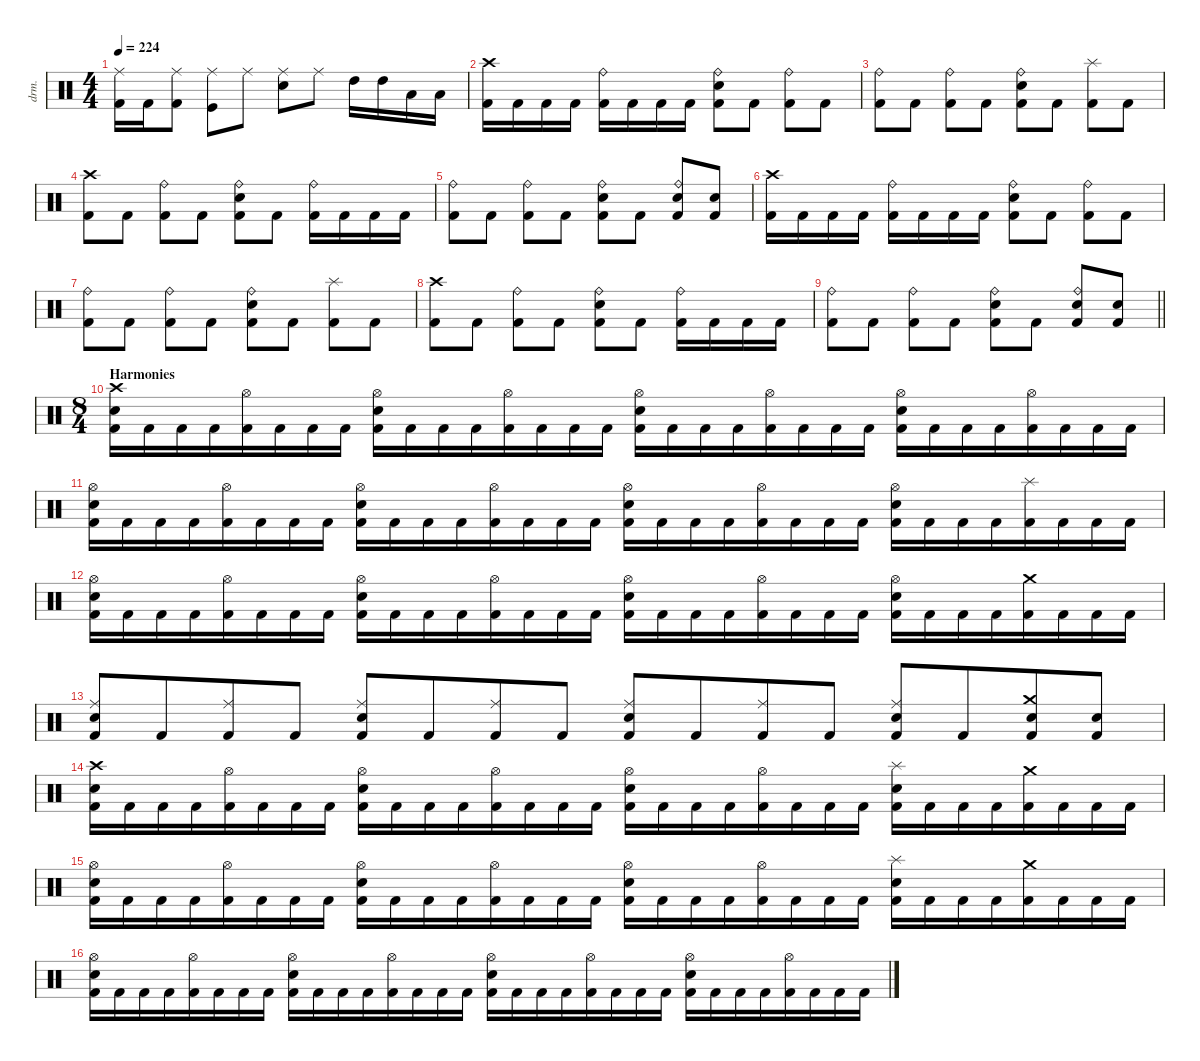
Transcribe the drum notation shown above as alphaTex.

\defaultSystemsLayout 4
\hideDynamics
\bracketExtendMode nobrackets
\otherSystemsTrackNameOrientation horizontal
\track ("Percussion" "drm.") {instrument percussion}
\staff {score}
\articulation defaults
\ts (4 4)
\tempo 224
\clef neutral
\ks c
("Ride (middle)" "Kick (hit) 2").16{dy f beam Down} "Kick (hit) 2".16{beam Down} ("Ride (middle)" "Kick (hit) 2").8{beam Down} ("Ride (middle)" "Kick (hit)").8{beam Down} "Ride (middle)".8{beam Down} ("Ride (middle)" "Snare (hit) 2").8{beam Down} "Ride (middle)".8{beam Down} "High Tom (hit)".16{beam Down} "High Tom (hit)".16{beam Down} "Low Tom (hit)".16{beam Down} "Low Tom (hit)".16{beam Down} |
("Crash high (hit)" "Kick (hit) 2").16{beam Down} "Kick (hit) 2".16{beam Down} "Kick (hit) 2".16{beam Down} "Kick (hit) 2".16{beam Down} ("Ride (bell)" "Kick (hit) 2").16{beam Down} "Kick (hit) 2".16{beam Down} "Kick (hit) 2".16{beam Down} "Kick (hit) 2".16{beam Down} ("Ride (bell)" "Snare (hit) 2" "Kick (hit) 2").8{beam Down} "Kick (hit) 2".8{beam Down} ("Ride (bell)" "Kick (hit) 2").8{beam Down} "Kick (hit) 2".8{beam Down} |
("Ride (bell)" "Kick (hit) 2").8{beam Down} "Kick (hit) 2".8{beam Down} ("Ride (bell)" "Kick (hit) 2").8{beam Down} "Kick (hit) 2".8{beam Down} ("Ride (bell)" "Snare (hit) 2" "Kick (hit) 2").8{beam Down} "Kick (hit) 2".8{beam Down} ("Splash (hit)" "Kick (hit) 2").8{beam Down} "Kick (hit) 2".8{beam Down} |
("Crash high (hit)" "Kick (hit) 2").8{beam Down} "Kick (hit) 2".8{beam Down} ("Ride (bell)" "Kick (hit) 2").8{beam Down} "Kick (hit) 2".8{beam Down} ("Ride (bell)" "Snare (hit) 2" "Kick (hit) 2").8{beam Down} "Kick (hit) 2".8{beam Down} ("Ride (bell)" "Kick (hit) 2").16{beam Down} "Kick (hit) 2".16{beam Down} "Kick (hit) 2".16{beam Down} "Kick (hit) 2".16{beam Down} |
("Ride (bell)" "Kick (hit) 2").8{beam Down} "Kick (hit) 2".8{beam Down} ("Ride (bell)" "Kick (hit) 2").8{beam Down} "Kick (hit) 2".8{beam Down} ("Ride (bell)" "Snare (hit) 2" "Kick (hit) 2").8{beam Down} "Kick (hit) 2".8{beam Down} ("Ride (bell)" "Snare (hit) 2" "Kick (hit) 2").8{beam Up} ("Snare (hit) 2" "Kick (hit) 2").8{beam Up} |
("Crash high (hit)" "Kick (hit) 2").16{beam Down} "Kick (hit) 2".16{beam Down} "Kick (hit) 2".16{beam Down} "Kick (hit) 2".16{beam Down} ("Ride (bell)" "Kick (hit) 2").16{beam Down} "Kick (hit) 2".16{beam Down} "Kick (hit) 2".16{beam Down} "Kick (hit) 2".16{beam Down} ("Ride (bell)" "Snare (hit) 2" "Kick (hit) 2").8{beam Down} "Kick (hit) 2".8{beam Down} ("Ride (bell)" "Kick (hit) 2").8{beam Down} "Kick (hit) 2".8{beam Down} |
("Ride (bell)" "Kick (hit) 2").8{beam Down} "Kick (hit) 2".8{beam Down} ("Ride (bell)" "Kick (hit) 2").8{beam Down} "Kick (hit) 2".8{beam Down} ("Ride (bell)" "Snare (hit) 2" "Kick (hit) 2").8{beam Down} "Kick (hit) 2".8{beam Down} ("Splash (hit)" "Kick (hit) 2").8{beam Down} "Kick (hit) 2".8{beam Down} |
("Crash high (hit)" "Kick (hit) 2").8{beam Down} "Kick (hit) 2".8{beam Down} ("Ride (bell)" "Kick (hit) 2").8{beam Down} "Kick (hit) 2".8{beam Down} ("Ride (bell)" "Snare (hit) 2" "Kick (hit) 2").8{beam Down} "Kick (hit) 2".8{beam Down} ("Ride (bell)" "Kick (hit) 2").16{beam Down} "Kick (hit) 2".16{beam Down} "Kick (hit) 2".16{beam Down} "Kick (hit) 2".16{beam Down} |
\barLineRight lightlight
("Ride (bell)" "Kick (hit) 2").8{beam Down} "Kick (hit) 2".8{beam Down} ("Ride (bell)" "Kick (hit) 2").8{beam Down} "Kick (hit) 2".8{beam Down} ("Ride (bell)" "Snare (hit) 2" "Kick (hit) 2").8{beam Down} "Kick (hit) 2".8{beam Down} ("Ride (bell)" "Snare (hit) 2" "Kick (hit) 2").8{beam Up} ("Snare (hit) 2" "Kick (hit) 2").8{beam Up} |
\ts (8 4)
\beaming (8 4 4 4 4)
\section ("" "Harmonies")
("Crash high (hit)" "Snare (hit) 2" "Kick (hit) 2").16{beam Down} "Kick (hit) 2".16{beam Down} "Kick (hit) 2".16{beam Down} "Kick (hit) 2".16{beam Down} ("Hi-Hat (open)" "Kick (hit) 2").16{beam Down} "Kick (hit) 2".16{beam Down} "Kick (hit) 2".16{beam Down} "Kick (hit) 2".16{beam Down} ("Hi-Hat (open)" "Snare (hit) 2" "Kick (hit) 2").16{beam Down} "Kick (hit) 2".16{beam Down} "Kick (hit) 2".16{beam Down} "Kick (hit) 2".16{beam Down} ("Hi-Hat (open)" "Kick (hit) 2").16{beam Down} "Kick (hit) 2".16{beam Down} "Kick (hit) 2".16{beam Down} "Kick (hit) 2".16{beam Down} ("Hi-Hat (open)" "Snare (hit) 2" "Kick (hit) 2").16{beam Down} "Kick (hit) 2".16{beam Down} "Kick (hit) 2".16{beam Down} "Kick (hit) 2".16{beam Down} ("Hi-Hat (open)" "Kick (hit) 2").16{beam Down} "Kick (hit) 2".16{beam Down} "Kick (hit) 2".16{beam Down} "Kick (hit) 2".16{beam Down} ("Hi-Hat (open)" "Snare (hit) 2" "Kick (hit) 2").16{beam Down} "Kick (hit) 2".16{beam Down} "Kick (hit) 2".16{beam Down} "Kick (hit) 2".16{beam Down} ("Hi-Hat (open)" "Kick (hit) 2").16{beam Down} "Kick (hit) 2".16{beam Down} "Kick (hit) 2".16{beam Down} "Kick (hit) 2".16{beam Down} |
("Hi-Hat (open)" "Snare (hit) 2" "Kick (hit) 2").16{beam Down} "Kick (hit) 2".16{beam Down} "Kick (hit) 2".16{beam Down} "Kick (hit) 2".16{beam Down} ("Hi-Hat (open)" "Kick (hit) 2").16{beam Down} "Kick (hit) 2".16{beam Down} "Kick (hit) 2".16{beam Down} "Kick (hit) 2".16{beam Down} ("Hi-Hat (open)" "Snare (hit) 2" "Kick (hit) 2").16{beam Down} "Kick (hit) 2".16{beam Down} "Kick (hit) 2".16{beam Down} "Kick (hit) 2".16{beam Down} ("Hi-Hat (open)" "Kick (hit) 2").16{beam Down} "Kick (hit) 2".16{beam Down} "Kick (hit) 2".16{beam Down} "Kick (hit) 2".16{beam Down} ("Hi-Hat (open)" "Snare (hit) 2" "Kick (hit) 2").16{beam Down} "Kick (hit) 2".16{beam Down} "Kick (hit) 2".16{beam Down} "Kick (hit) 2".16{beam Down} ("Hi-Hat (open)" "Kick (hit) 2").16{beam Down} "Kick (hit) 2".16{beam Down} "Kick (hit) 2".16{beam Down} "Kick (hit) 2".16{beam Down} ("Hi-Hat (open)" "Snare (hit) 2" "Kick (hit) 2").16{beam Down} "Kick (hit) 2".16{beam Down} "Kick (hit) 2".16{beam Down} "Kick (hit) 2".16{beam Down} ("Splash (hit)" "Kick (hit) 2").16{beam Down} "Kick (hit) 2".16{beam Down} "Kick (hit) 2".16{beam Down} "Kick (hit) 2".16{beam Down} |
("Hi-Hat (open)" "Snare (hit) 2" "Kick (hit) 2").16{beam Down} "Kick (hit) 2".16{beam Down} "Kick (hit) 2".16{beam Down} "Kick (hit) 2".16{beam Down} ("Hi-Hat (open)" "Kick (hit) 2").16{beam Down} "Kick (hit) 2".16{beam Down} "Kick (hit) 2".16{beam Down} "Kick (hit) 2".16{beam Down} ("Hi-Hat (open)" "Snare (hit) 2" "Kick (hit) 2").16{beam Down} "Kick (hit) 2".16{beam Down} "Kick (hit) 2".16{beam Down} "Kick (hit) 2".16{beam Down} ("Hi-Hat (open)" "Kick (hit) 2").16{beam Down} "Kick (hit) 2".16{beam Down} "Kick (hit) 2".16{beam Down} "Kick (hit) 2".16{beam Down} ("Hi-Hat (open)" "Snare (hit) 2" "Kick (hit) 2").16{beam Down} "Kick (hit) 2".16{beam Down} "Kick (hit) 2".16{beam Down} "Kick (hit) 2".16{beam Down} ("Hi-Hat (open)" "Kick (hit) 2").16{beam Down} "Kick (hit) 2".16{beam Down} "Kick (hit) 2".16{beam Down} "Kick (hit) 2".16{beam Down} ("Hi-Hat (open)" "Snare (hit) 2" "Kick (hit) 2").16{beam Down} "Kick (hit) 2".16{beam Down} "Kick (hit) 2".16{beam Down} "Kick (hit) 2".16{beam Down} ("Crash medium (hit)" "Kick (hit) 2").16{beam Down} "Kick (hit) 2".16{beam Down} "Kick (hit) 2".16{beam Down} "Kick (hit) 2".16{beam Down} |
("Ride (middle)" "Snare (hit) 2" "Kick (hit) 2").8{beam Up} "Kick (hit) 2".8{beam Up} ("Ride (middle)" "Kick (hit) 2").8{beam Up} "Kick (hit) 2".8{beam Up} ("Ride (middle)" "Snare (hit) 2" "Kick (hit) 2").8{beam Up} "Kick (hit) 2".8{beam Up} ("Ride (middle)" "Kick (hit) 2").8{beam Up} "Kick (hit) 2".8{beam Up} ("Ride (middle)" "Snare (hit) 2" "Kick (hit) 2").8{beam Up} "Kick (hit) 2".8{beam Up} ("Ride (middle)" "Kick (hit) 2").8{beam Up} "Kick (hit) 2".8{beam Up} ("Ride (middle)" "Snare (hit) 2" "Kick (hit) 2").8{beam Up} "Kick (hit) 2".8{beam Up} ("Crash medium (hit)" "Snare (hit) 2" "Kick (hit) 2").8{beam Up} ("Snare (hit) 2" "Kick (hit) 2").8{beam Up} |
("Crash high (hit)" "Snare (hit) 2" "Kick (hit) 2").16{beam Down} "Kick (hit) 2".16{beam Down} "Kick (hit) 2".16{beam Down} "Kick (hit) 2".16{beam Down} ("Hi-Hat (open)" "Kick (hit) 2").16{beam Down} "Kick (hit) 2".16{beam Down} "Kick (hit) 2".16{beam Down} "Kick (hit) 2".16{beam Down} ("Hi-Hat (open)" "Snare (hit) 2" "Kick (hit) 2").16{beam Down} "Kick (hit) 2".16{beam Down} "Kick (hit) 2".16{beam Down} "Kick (hit) 2".16{beam Down} ("Hi-Hat (open)" "Kick (hit) 2").16{beam Down} "Kick (hit) 2".16{beam Down} "Kick (hit) 2".16{beam Down} "Kick (hit) 2".16{beam Down} ("Hi-Hat (open)" "Snare (hit) 2" "Kick (hit) 2").16{beam Down} "Kick (hit) 2".16{beam Down} "Kick (hit) 2".16{beam Down} "Kick (hit) 2".16{beam Down} ("Hi-Hat (open)" "Kick (hit) 2").16{beam Down} "Kick (hit) 2".16{beam Down} "Kick (hit) 2".16{beam Down} "Kick (hit) 2".16{beam Down} ("Splash (hit)" "Snare (hit) 2" "Kick (hit) 2").16{beam Down} "Kick (hit) 2".16{beam Down} "Kick (hit) 2".16{beam Down} "Kick (hit) 2".16{beam Down} ("Crash medium (hit)" "Kick (hit) 2").16{beam Down} "Kick (hit) 2".16{beam Down} "Kick (hit) 2".16{beam Down} "Kick (hit) 2".16{beam Down} |
("Hi-Hat (open)" "Snare (hit) 2" "Kick (hit) 2").16{beam Down} "Kick (hit) 2".16{beam Down} "Kick (hit) 2".16{beam Down} "Kick (hit) 2".16{beam Down} ("Hi-Hat (open)" "Kick (hit) 2").16{beam Down} "Kick (hit) 2".16{beam Down} "Kick (hit) 2".16{beam Down} "Kick (hit) 2".16{beam Down} ("Hi-Hat (open)" "Snare (hit) 2" "Kick (hit) 2").16{beam Down} "Kick (hit) 2".16{beam Down} "Kick (hit) 2".16{beam Down} "Kick (hit) 2".16{beam Down} ("Hi-Hat (open)" "Kick (hit) 2").16{beam Down} "Kick (hit) 2".16{beam Down} "Kick (hit) 2".16{beam Down} "Kick (hit) 2".16{beam Down} ("Hi-Hat (open)" "Snare (hit) 2" "Kick (hit) 2").16{beam Down} "Kick (hit) 2".16{beam Down} "Kick (hit) 2".16{beam Down} "Kick (hit) 2".16{beam Down} ("Hi-Hat (open)" "Kick (hit) 2").16{beam Down} "Kick (hit) 2".16{beam Down} "Kick (hit) 2".16{beam Down} "Kick (hit) 2".16{beam Down} ("Splash (hit)" "Snare (hit) 2" "Kick (hit) 2").16{beam Down} "Kick (hit) 2".16{beam Down} "Kick (hit) 2".16{beam Down} "Kick (hit) 2".16{beam Down} ("Crash medium (hit)" "Kick (hit) 2").16{beam Down} "Kick (hit) 2".16{beam Down} "Kick (hit) 2".16{beam Down} "Kick (hit) 2".16{beam Down} |
("Hi-Hat (open)" "Snare (hit) 2" "Kick (hit) 2").16{beam Down} "Kick (hit) 2".16{beam Down} "Kick (hit) 2".16{beam Down} "Kick (hit) 2".16{beam Down} ("Hi-Hat (open)" "Kick (hit) 2").16{beam Down} "Kick (hit) 2".16{beam Down} "Kick (hit) 2".16{beam Down} "Kick (hit) 2".16{beam Down} ("Hi-Hat (open)" "Snare (hit) 2" "Kick (hit) 2").16{beam Down} "Kick (hit) 2".16{beam Down} "Kick (hit) 2".16{beam Down} "Kick (hit) 2".16{beam Down} ("Hi-Hat (open)" "Kick (hit) 2").16{beam Down} "Kick (hit) 2".16{beam Down} "Kick (hit) 2".16{beam Down} "Kick (hit) 2".16{beam Down} ("Hi-Hat (open)" "Snare (hit) 2" "Kick (hit) 2").16{beam Down} "Kick (hit) 2".16{beam Down} "Kick (hit) 2".16{beam Down} "Kick (hit) 2".16{beam Down} ("Hi-Hat (open)" "Kick (hit) 2").16{beam Down} "Kick (hit) 2".16{beam Down} "Kick (hit) 2".16{beam Down} "Kick (hit) 2".16{beam Down} ("Hi-Hat (open)" "Snare (hit) 2" "Kick (hit) 2").16{beam Down} "Kick (hit) 2".16{beam Down} "Kick (hit) 2".16{beam Down} "Kick (hit) 2".16{beam Down} ("Hi-Hat (open)" "Kick (hit) 2").16{beam Down} "Kick (hit) 2".16{beam Down} "Kick (hit) 2".16{beam Down} "Kick (hit) 2".16{beam Down}
